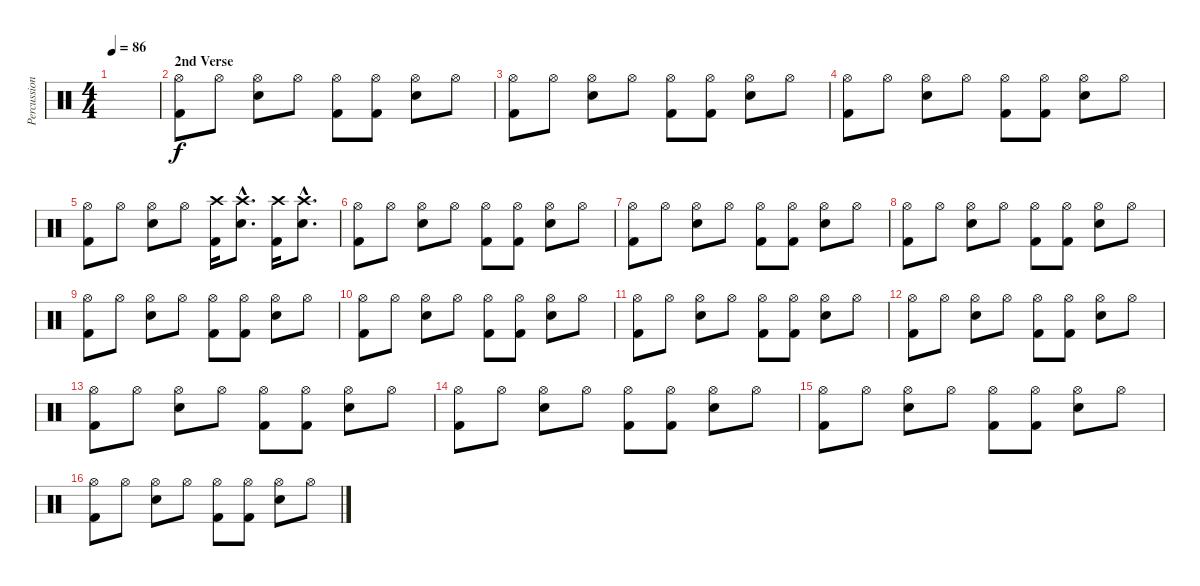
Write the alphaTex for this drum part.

\track ("Percussion" "Percussion") {instrument percussion}
\staff {score}
\articulation defaults
\ts (4 4)
\tempo 86
\clef neutral
\ks c
|
\section ("" "2nd Verse")
("Hi-Hat (open)" "Kick (hit) 2").8 "Hi-Hat (open)".8 ("Hi-Hat (open)" "Snare (hit) 2").8 "Hi-Hat (open)".8 ("Hi-Hat (open)" "Kick (hit) 2").8 ("Hi-Hat (open)" "Kick (hit) 2").8 ("Hi-Hat (open)" "Snare (hit) 2").8 "Hi-Hat (open)".8 |
("Hi-Hat (open)" "Kick (hit) 2").8 "Hi-Hat (open)".8 ("Hi-Hat (open)" "Snare (hit) 2").8 "Hi-Hat (open)".8 ("Hi-Hat (open)" "Kick (hit) 2").8 ("Hi-Hat (open)" "Kick (hit) 2").8 ("Hi-Hat (open)" "Snare (hit) 2").8 "Hi-Hat (open)".8 |
("Hi-Hat (open)" "Kick (hit) 2").8 "Hi-Hat (open)".8 ("Hi-Hat (open)" "Snare (hit) 2").8 "Hi-Hat (open)".8 ("Hi-Hat (open)" "Kick (hit) 2").8 ("Hi-Hat (open)" "Kick (hit) 2").8 ("Hi-Hat (open)" "Snare (hit) 2").8 "Hi-Hat (open)".8 |
("Hi-Hat (open)" "Kick (hit) 2").8 "Hi-Hat (open)".8 ("Hi-Hat (open)" "Snare (hit) 2").8 "Hi-Hat (open)".8 ("Crash high (hit)" "Kick (hit) 2").16 ("Crash high (hit)"{hac} "Snare (hit) 2"{hac}).8{d} ("Crash high (hit)" "Kick (hit) 2").16 ("Crash high (hit)"{hac} "Snare (hit) 2"{hac}).8{d} |
("Hi-Hat (open)" "Kick (hit) 2").8 "Hi-Hat (open)".8 ("Hi-Hat (open)" "Snare (hit) 2").8 "Hi-Hat (open)".8 ("Hi-Hat (open)" "Kick (hit) 2").8 ("Hi-Hat (open)" "Kick (hit) 2").8 ("Hi-Hat (open)" "Snare (hit) 2").8 "Hi-Hat (open)".8 |
("Hi-Hat (open)" "Kick (hit) 2").8 "Hi-Hat (open)".8 ("Hi-Hat (open)" "Snare (hit) 2").8 "Hi-Hat (open)".8 ("Hi-Hat (open)" "Kick (hit) 2").8 ("Hi-Hat (open)" "Kick (hit) 2").8 ("Hi-Hat (open)" "Snare (hit) 2").8 "Hi-Hat (open)".8 |
("Hi-Hat (open)" "Kick (hit) 2").8 "Hi-Hat (open)".8 ("Hi-Hat (open)" "Snare (hit) 2").8 "Hi-Hat (open)".8 ("Hi-Hat (open)" "Kick (hit) 2").8 ("Hi-Hat (open)" "Kick (hit) 2").8 ("Hi-Hat (open)" "Snare (hit) 2").8 "Hi-Hat (open)".8 |
("Hi-Hat (open)" "Kick (hit) 2").8 "Hi-Hat (open)".8 ("Hi-Hat (open)" "Snare (hit) 2").8 "Hi-Hat (open)".8 ("Hi-Hat (open)" "Kick (hit) 2").8 ("Hi-Hat (open)" "Kick (hit) 2").8 ("Hi-Hat (open)" "Snare (hit) 2").8 "Hi-Hat (open)".8 |
("Hi-Hat (open)" "Kick (hit) 2").8 "Hi-Hat (open)".8 ("Hi-Hat (open)" "Snare (hit) 2").8 "Hi-Hat (open)".8 ("Hi-Hat (open)" "Kick (hit) 2").8 ("Hi-Hat (open)" "Kick (hit) 2").8 ("Hi-Hat (open)" "Snare (hit) 2").8 "Hi-Hat (open)".8 |
("Hi-Hat (open)" "Kick (hit) 2").8 "Hi-Hat (open)".8 ("Hi-Hat (open)" "Snare (hit) 2").8 "Hi-Hat (open)".8 ("Hi-Hat (open)" "Kick (hit) 2").8 ("Hi-Hat (open)" "Kick (hit) 2").8 ("Hi-Hat (open)" "Snare (hit) 2").8 "Hi-Hat (open)".8 |
("Hi-Hat (open)" "Kick (hit) 2").8 "Hi-Hat (open)".8 ("Hi-Hat (open)" "Snare (hit) 2").8 "Hi-Hat (open)".8 ("Hi-Hat (open)" "Kick (hit) 2").8 ("Hi-Hat (open)" "Kick (hit) 2").8 ("Hi-Hat (open)" "Snare (hit) 2").8 "Hi-Hat (open)".8 |
("Hi-Hat (open)" "Kick (hit) 2").8 "Hi-Hat (open)".8 ("Hi-Hat (open)" "Snare (hit) 2").8 "Hi-Hat (open)".8 ("Hi-Hat (open)" "Kick (hit) 2").8 ("Hi-Hat (open)" "Kick (hit) 2").8 ("Hi-Hat (open)" "Snare (hit) 2").8 "Hi-Hat (open)".8 |
("Hi-Hat (open)" "Kick (hit) 2").8 "Hi-Hat (open)".8 ("Hi-Hat (open)" "Snare (hit) 2").8 "Hi-Hat (open)".8 ("Hi-Hat (open)" "Kick (hit) 2").8 ("Hi-Hat (open)" "Kick (hit) 2").8 ("Hi-Hat (open)" "Snare (hit) 2").8 "Hi-Hat (open)".8 |
("Hi-Hat (open)" "Kick (hit) 2").8 "Hi-Hat (open)".8 ("Hi-Hat (open)" "Snare (hit) 2").8 "Hi-Hat (open)".8 ("Hi-Hat (open)" "Kick (hit) 2").8 ("Hi-Hat (open)" "Kick (hit) 2").8 ("Hi-Hat (open)" "Snare (hit) 2").8 "Hi-Hat (open)".8 |
("Hi-Hat (open)" "Kick (hit) 2").8 "Hi-Hat (open)".8 ("Hi-Hat (open)" "Snare (hit) 2").8 "Hi-Hat (open)".8 ("Hi-Hat (open)" "Kick (hit) 2").8 ("Hi-Hat (open)" "Kick (hit) 2").8 ("Hi-Hat (open)" "Snare (hit) 2").8 "Hi-Hat (open)".8
